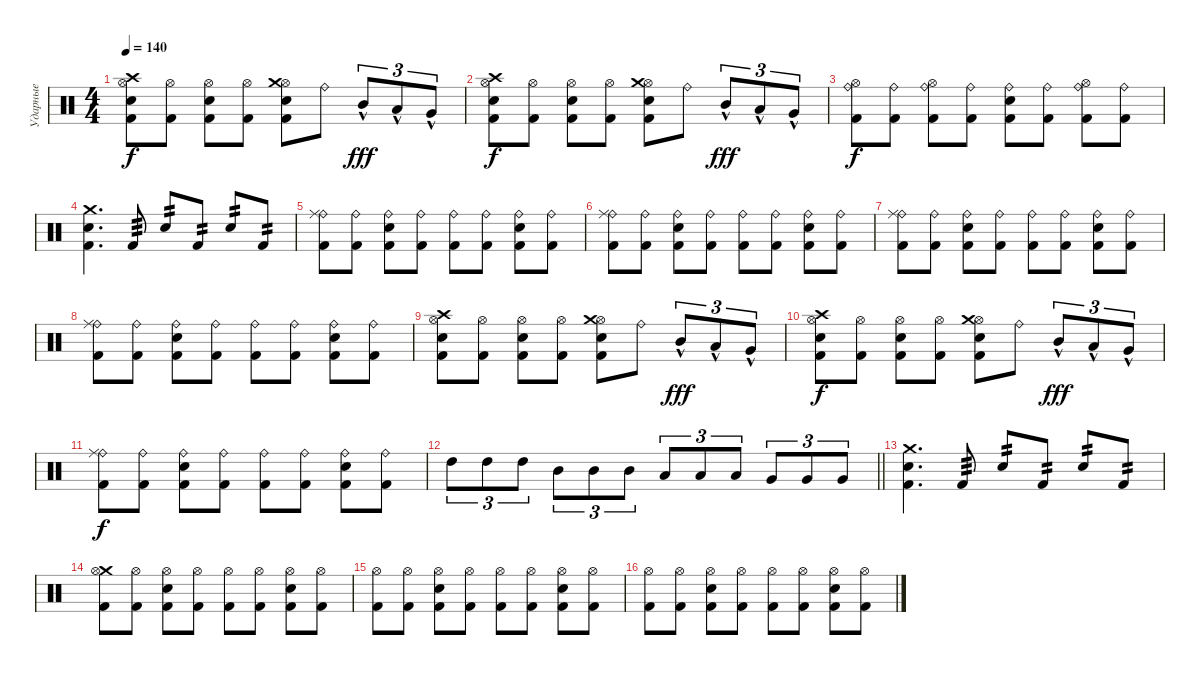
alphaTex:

\track ("Ударные" "Ударные") {instrument percussion}
\staff {score}
\articulation defaults
\ts (4 4)
\tempo 140
\clef neutral
\ks c
("Kick (hit) 2" "Crash high (hit)" "Hi-Hat (open)" "Snare (hit) 2").8{dy f} ("Kick (hit) 2" "Hi-Hat (open)").8 ("Kick (hit) 2" "Hi-Hat (open)" "Snare (hit) 2").8 ("Kick (hit) 2" "Hi-Hat (open)").8 ("Kick (hit) 2" "Hi-Hat (open)" "Crash medium (hit)" "Snare (hit) 2").8 "Ride (bell)".8 "Mid Tom (hit)"{hac}.8{tu (3 2) dy fff} "Low Tom (hit)"{hac}.8{tu (3 2)} "Very Low Tom (hit)"{hac}.8{tu (3 2)} |
("Kick (hit) 2" "Crash high (hit)" "Hi-Hat (open)" "Snare (hit) 2").8{dy f} ("Kick (hit) 2" "Hi-Hat (open)").8 ("Kick (hit) 2" "Hi-Hat (open)" "Snare (hit) 2").8 ("Kick (hit) 2" "Hi-Hat (open)").8 ("Kick (hit) 2" "Hi-Hat (open)" "Crash medium (hit)" "Snare (hit) 2").8 "Ride (bell)".8 "Mid Tom (hit)"{hac}.8{tu (3 2) dy fff} "Low Tom (hit)"{hac}.8{tu (3 2)} "Very Low Tom (hit)"{hac}.8{tu (3 2)} |
("Kick (hit) 2" "Ride (bell)" "Hi-Hat (open)").8{dy f} ("Kick (hit) 2" "Ride (bell)").8 ("Kick (hit) 2" "Ride (bell)" "Hi-Hat (open)").8 ("Kick (hit) 2" "Ride (bell)").8 ("Kick (hit) 2" "Ride (bell)" "Snare (hit) 2").8 ("Kick (hit) 2" "Ride (bell)").8 ("Kick (hit) 2" "Ride (bell)" "Hi-Hat (open)").8 ("Kick (hit) 2" "Ride (bell)").8 |
("Kick (hit) 2" "Snare (hit) 2" "Crash medium (hit)").4{d} "Kick (hit) 2".8{tp 3} "Snare (hit) 2".8{tp 2} "Kick (hit) 2".8{tp 2} "Snare (hit) 2".8{tp 2} "Kick (hit) 2".8{tp 2} |
("Kick (hit) 2" "Ride (bell)" "Ride (middle)").8 ("Kick (hit) 2" "Ride (bell)").8 ("Kick (hit) 2" "Ride (bell)" "Snare (hit) 2").8 ("Kick (hit) 2" "Ride (bell)").8 ("Kick (hit) 2" "Ride (bell)").8 ("Kick (hit) 2" "Ride (bell)").8 ("Kick (hit) 2" "Ride (bell)" "Snare (hit) 2").8 ("Kick (hit) 2" "Ride (bell)").8 |
("Kick (hit) 2" "Ride (bell)" "Ride (middle)").8 ("Kick (hit) 2" "Ride (bell)").8 ("Kick (hit) 2" "Ride (bell)" "Snare (hit) 2").8 ("Kick (hit) 2" "Ride (bell)").8 ("Kick (hit) 2" "Ride (bell)").8 ("Kick (hit) 2" "Ride (bell)").8 ("Kick (hit) 2" "Ride (bell)" "Snare (hit) 2").8 ("Kick (hit) 2" "Ride (bell)").8 |
("Kick (hit) 2" "Ride (bell)" "Ride (middle)").8 ("Kick (hit) 2" "Ride (bell)").8 ("Kick (hit) 2" "Ride (bell)" "Snare (hit) 2").8 ("Kick (hit) 2" "Ride (bell)").8 ("Kick (hit) 2" "Ride (bell)").8 ("Kick (hit) 2" "Ride (bell)").8 ("Kick (hit) 2" "Ride (bell)" "Snare (hit) 2").8 ("Kick (hit) 2" "Ride (bell)").8 |
("Kick (hit) 2" "Ride (bell)" "Ride (middle)").8 ("Kick (hit) 2" "Ride (bell)").8 ("Kick (hit) 2" "Ride (bell)" "Snare (hit) 2").8 ("Kick (hit) 2" "Ride (bell)").8 ("Kick (hit) 2" "Ride (bell)").8 ("Kick (hit) 2" "Ride (bell)").8 ("Kick (hit) 2" "Ride (bell)" "Snare (hit) 2").8 ("Kick (hit) 2" "Ride (bell)").8 |
("Kick (hit) 2" "Crash high (hit)" "Hi-Hat (open)" "Snare (hit) 2").8 ("Kick (hit) 2" "Hi-Hat (open)").8 ("Kick (hit) 2" "Hi-Hat (open)" "Snare (hit) 2").8 ("Kick (hit) 2" "Hi-Hat (open)").8 ("Kick (hit) 2" "Hi-Hat (open)" "Crash medium (hit)" "Snare (hit) 2").8 "Ride (bell)".8 "Mid Tom (hit)"{hac}.8{tu (3 2) dy fff} "Low Tom (hit)"{hac}.8{tu (3 2)} "Very Low Tom (hit)"{hac}.8{tu (3 2)} |
("Kick (hit) 2" "Crash high (hit)" "Hi-Hat (open)" "Snare (hit) 2").8{dy f} ("Kick (hit) 2" "Hi-Hat (open)").8 ("Kick (hit) 2" "Hi-Hat (open)" "Snare (hit) 2").8 ("Kick (hit) 2" "Hi-Hat (open)").8 ("Kick (hit) 2" "Hi-Hat (open)" "Crash medium (hit)" "Snare (hit) 2").8 "Ride (bell)".8 "Mid Tom (hit)"{hac}.8{tu (3 2) dy fff} "Low Tom (hit)"{hac}.8{tu (3 2)} "Very Low Tom (hit)"{hac}.8{tu (3 2)} |
("Kick (hit) 2" "Ride (bell)" "Ride (middle)").8{dy f} ("Kick (hit) 2" "Ride (bell)").8 ("Kick (hit) 2" "Ride (bell)" "Snare (hit) 2").8 ("Kick (hit) 2" "Ride (bell)").8 ("Kick (hit) 2" "Ride (bell)").8 ("Kick (hit) 2" "Ride (bell)").8 ("Kick (hit) 2" "Ride (bell)" "Snare (hit) 2").8 ("Kick (hit) 2" "Ride (bell)").8 |
\barLineRight lightlight "High Tom (hit)".8{tu (3 2)} "High Tom (hit)".8{tu (3 2)} "High Tom (hit)".8{tu (3 2)} "Mid Tom (hit)".8{tu (3 2)} "Mid Tom (hit)".8{tu (3 2)} "Mid Tom (hit)".8{tu (3 2)} "Low Tom (hit)".8{tu (3 2)} "Low Tom (hit)".8{tu (3 2)} "Low Tom (hit)".8{tu (3 2)} "Very Low Tom (hit)".8{tu (3 2)} "Very Low Tom (hit)".8{tu (3 2)} "Very Low Tom (hit)".8{tu (3 2)}
|
("Kick (hit) 2" "Snare (hit) 2" "Crash medium (hit)").4{d} "Kick (hit) 2".8{tp 3} "Snare (hit) 2".8{tp 2} "Kick (hit) 2".8{tp 2} "Snare (hit) 2".8{tp 2} "Kick (hit) 2".8{tp 2} |
("Kick (hit) 2" "Crash medium (hit)" "Hi-Hat (open)").8 ("Kick (hit) 2" "Hi-Hat (open)").8 ("Kick (hit) 2" "Hi-Hat (open)" "Snare (hit) 2").8 ("Kick (hit) 2" "Hi-Hat (open)").8 ("Kick (hit) 2" "Hi-Hat (open)").8 ("Kick (hit) 2" "Hi-Hat (open)").8 ("Kick (hit) 2" "Hi-Hat (open)" "Snare (hit) 2").8 ("Kick (hit) 2" "Hi-Hat (open)").8 |
("Kick (hit) 2" "Hi-Hat (open)").8 ("Kick (hit) 2" "Hi-Hat (open)").8 ("Kick (hit) 2" "Hi-Hat (open)" "Snare (hit) 2").8 ("Kick (hit) 2" "Hi-Hat (open)").8 ("Kick (hit) 2" "Hi-Hat (open)").8 ("Kick (hit) 2" "Hi-Hat (open)").8 ("Kick (hit) 2" "Hi-Hat (open)" "Snare (hit) 2").8 ("Kick (hit) 2" "Hi-Hat (open)").8 |
("Kick (hit) 2" "Hi-Hat (open)").8 ("Kick (hit) 2" "Hi-Hat (open)").8 ("Kick (hit) 2" "Hi-Hat (open)" "Snare (hit) 2").8 ("Kick (hit) 2" "Hi-Hat (open)").8 ("Kick (hit) 2" "Hi-Hat (open)").8 ("Kick (hit) 2" "Hi-Hat (open)").8 ("Kick (hit) 2" "Hi-Hat (open)" "Snare (hit) 2").8 ("Kick (hit) 2" "Hi-Hat (open)").8
